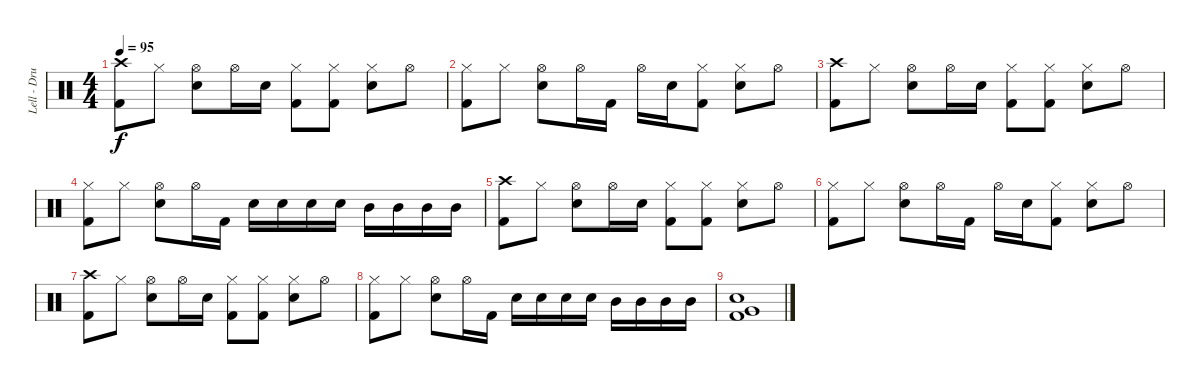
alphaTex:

\track ("Lell - Drums" "Lell - Dru") {instrument percussion}
\staff {score}
\articulation defaults
\ts (4 4)
\tempo 95
\clef neutral
\ks c
("Crash high (hit)" "Kick (hit) 2").8{dy f} "Hi-Hat (closed)".8 ("Hi-Hat (open)" "Snare (hit) 2").8 "Hi-Hat (open)".16 "Snare (hit) 2".16 ("Hi-Hat (closed)" "Kick (hit) 2").8 ("Hi-Hat (closed)" "Kick (hit) 2").8 ("Hi-Hat (closed)" "Snare (hit) 2").8 "Hi-Hat (open)".8 |
("Hi-Hat (closed)" "Kick (hit) 2").8 "Hi-Hat (closed)".8 ("Hi-Hat (open)" "Snare (hit) 2").8 "Hi-Hat (open)".16 "Kick (hit) 2".16 "Hi-Hat (open)".16 "Snare (hit) 2".16 ("Hi-Hat (closed)" "Kick (hit) 2").8 ("Hi-Hat (closed)" "Snare (hit) 2").8 "Hi-Hat (open)".8 |
("Crash high (hit)" "Kick (hit) 2").8 "Hi-Hat (closed)".8 ("Hi-Hat (open)" "Snare (hit) 2").8 "Hi-Hat (open)".16 "Snare (hit) 2".16 ("Hi-Hat (closed)" "Kick (hit) 2").8 ("Hi-Hat (closed)" "Kick (hit) 2").8 ("Hi-Hat (closed)" "Snare (hit) 2").8 "Hi-Hat (open)".8 |
("Hi-Hat (closed)" "Kick (hit) 2").8 "Hi-Hat (closed)".8 ("Hi-Hat (open)" "Snare (hit) 2").8 "Hi-Hat (open)".16 "Kick (hit) 2".16 "Snare (hit) 2".16 "Snare (hit) 2".16 "Snare (hit) 2".16 "Snare (hit) 2".16 "Mid Tom (hit)".16 "Mid Tom (hit)".16 "Mid Tom (hit)".16 "Mid Tom (hit)".16 |
("Crash high (hit)" "Kick (hit) 2").8 "Hi-Hat (closed)".8 ("Hi-Hat (open)" "Snare (hit) 2").8 "Hi-Hat (open)".16 "Snare (hit) 2".16 ("Hi-Hat (closed)" "Kick (hit) 2").8 ("Hi-Hat (closed)" "Kick (hit) 2").8 ("Hi-Hat (closed)" "Snare (hit) 2").8 "Hi-Hat (open)".8 |
("Hi-Hat (closed)" "Kick (hit) 2").8 "Hi-Hat (closed)".8 ("Hi-Hat (open)" "Snare (hit) 2").8 "Hi-Hat (open)".16 "Kick (hit) 2".16 "Hi-Hat (open)".16 "Snare (hit) 2".16 ("Hi-Hat (closed)" "Kick (hit) 2").8 ("Hi-Hat (closed)" "Snare (hit) 2").8 "Hi-Hat (open)".8 |
("Crash high (hit)" "Kick (hit) 2").8 "Hi-Hat (closed)".8 ("Hi-Hat (open)" "Snare (hit) 2").8 "Hi-Hat (open)".16 "Snare (hit) 2".16 ("Hi-Hat (closed)" "Kick (hit) 2").8 ("Hi-Hat (closed)" "Kick (hit) 2").8 ("Hi-Hat (closed)" "Snare (hit) 2").8 "Hi-Hat (open)".8 |
("Hi-Hat (closed)" "Kick (hit) 2").8 "Hi-Hat (closed)".8 ("Hi-Hat (open)" "Snare (hit) 2").8 "Hi-Hat (open)".16 "Kick (hit) 2".16 "Snare (hit) 2".16 "Snare (hit) 2".16 "Snare (hit) 2".16 "Snare (hit) 2".16 "Mid Tom (hit)".16 "Mid Tom (hit)".16 "Mid Tom (hit)".16 "Mid Tom (hit)".16 |
("Very Low Tom (hit)" "Snare (hit) 2" "Kick (hit) 2").1
